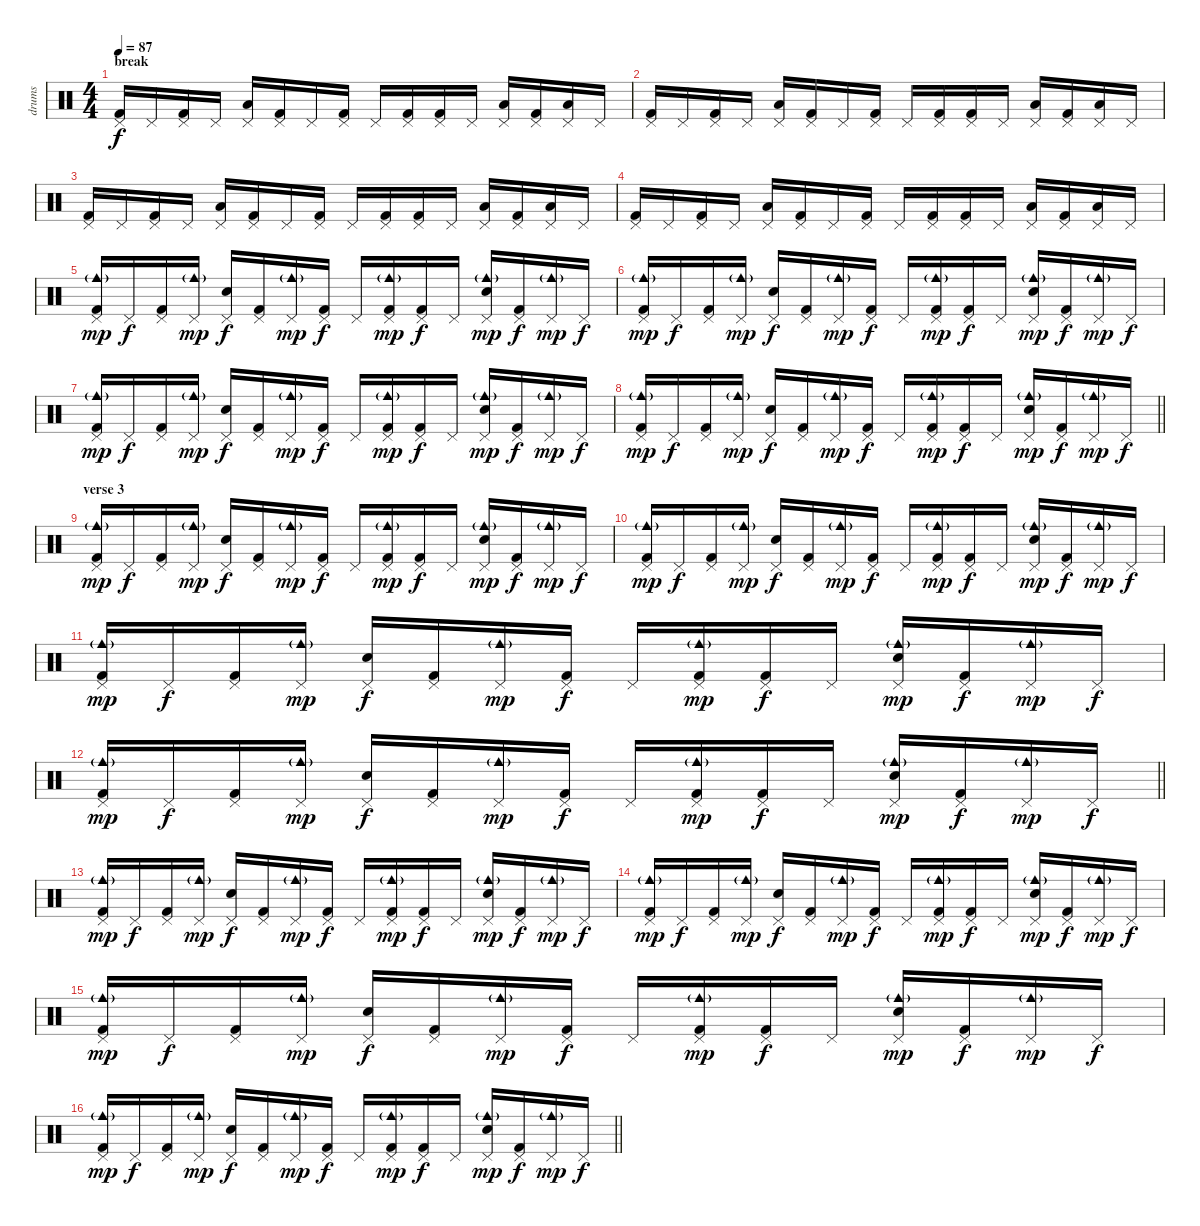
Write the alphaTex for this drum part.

\track ("drums" "drums") {instrument percussion}
\staff {score}
\articulation defaults
\ts (4 4)
\section ("" "break")
\tempo 87
\clef neutral
\ks c
("Kick (hit) 2" "Pedal Hi-Hat (hit)").16{dy f} "Pedal Hi-Hat (hit)".16 ("Kick (hit) 2" "Pedal Hi-Hat (hit)").16 "Pedal Hi-Hat (hit)".16 ("Low Floor Tom (hit)" "Pedal Hi-Hat (hit)").16 ("Kick (hit) 2" "Pedal Hi-Hat (hit)").16 "Pedal Hi-Hat (hit)".16 ("Kick (hit) 2" "Pedal Hi-Hat (hit)").16 "Pedal Hi-Hat (hit)".16 ("Kick (hit) 2" "Pedal Hi-Hat (hit)").16 ("Kick (hit) 2" "Pedal Hi-Hat (hit)").16 "Pedal Hi-Hat (hit)".16 ("Low Floor Tom (hit)" "Pedal Hi-Hat (hit)").16 ("Kick (hit) 2" "Pedal Hi-Hat (hit)").16 ("Low Floor Tom (hit)" "Pedal Hi-Hat (hit)").16 "Pedal Hi-Hat (hit)".16 |
("Kick (hit) 2" "Pedal Hi-Hat (hit)").16 "Pedal Hi-Hat (hit)".16 ("Kick (hit) 2" "Pedal Hi-Hat (hit)").16 "Pedal Hi-Hat (hit)".16 ("Low Floor Tom (hit)" "Pedal Hi-Hat (hit)").16 ("Kick (hit) 2" "Pedal Hi-Hat (hit)").16 "Pedal Hi-Hat (hit)".16 ("Kick (hit) 2" "Pedal Hi-Hat (hit)").16 "Pedal Hi-Hat (hit)".16 ("Kick (hit) 2" "Pedal Hi-Hat (hit)").16 ("Kick (hit) 2" "Pedal Hi-Hat (hit)").16 "Pedal Hi-Hat (hit)".16 ("Low Floor Tom (hit)" "Pedal Hi-Hat (hit)").16 ("Kick (hit) 2" "Pedal Hi-Hat (hit)").16 ("Low Floor Tom (hit)" "Pedal Hi-Hat (hit)").16 "Pedal Hi-Hat (hit)".16 |
("Kick (hit) 2" "Pedal Hi-Hat (hit)").16 "Pedal Hi-Hat (hit)".16 ("Kick (hit) 2" "Pedal Hi-Hat (hit)").16 "Pedal Hi-Hat (hit)".16 ("Low Floor Tom (hit)" "Pedal Hi-Hat (hit)").16 ("Kick (hit) 2" "Pedal Hi-Hat (hit)").16 "Pedal Hi-Hat (hit)".16 ("Kick (hit) 2" "Pedal Hi-Hat (hit)").16 "Pedal Hi-Hat (hit)".16 ("Kick (hit) 2" "Pedal Hi-Hat (hit)").16 ("Kick (hit) 2" "Pedal Hi-Hat (hit)").16 "Pedal Hi-Hat (hit)".16 ("Low Floor Tom (hit)" "Pedal Hi-Hat (hit)").16 ("Kick (hit) 2" "Pedal Hi-Hat (hit)").16 ("Low Floor Tom (hit)" "Pedal Hi-Hat (hit)").16 "Pedal Hi-Hat (hit)".16 |
("Kick (hit) 2" "Pedal Hi-Hat (hit)").16 "Pedal Hi-Hat (hit)".16 ("Kick (hit) 2" "Pedal Hi-Hat (hit)").16 "Pedal Hi-Hat (hit)".16 ("Low Floor Tom (hit)" "Pedal Hi-Hat (hit)").16 ("Kick (hit) 2" "Pedal Hi-Hat (hit)").16 "Pedal Hi-Hat (hit)".16 ("Kick (hit) 2" "Pedal Hi-Hat (hit)").16 "Pedal Hi-Hat (hit)".16 ("Kick (hit) 2" "Pedal Hi-Hat (hit)").16 ("Kick (hit) 2" "Pedal Hi-Hat (hit)").16 "Pedal Hi-Hat (hit)".16 ("Low Floor Tom (hit)" "Pedal Hi-Hat (hit)").16 ("Kick (hit) 2" "Pedal Hi-Hat (hit)").16 ("Low Floor Tom (hit)" "Pedal Hi-Hat (hit)").16 "Pedal Hi-Hat (hit)".16 |
("Kick (hit) 2" "Pedal Hi-Hat (hit)" "Cowbell medium (hit)"{g}).16{dy mp} "Pedal Hi-Hat (hit)".16{dy f} ("Kick (hit) 2" "Pedal Hi-Hat (hit)").16 ("Pedal Hi-Hat (hit)" "Cowbell medium (hit)"{g}).16{dy mp} ("Snare (hit) 2" "Pedal Hi-Hat (hit)").16{dy f} ("Kick (hit) 2" "Pedal Hi-Hat (hit)").16 ("Pedal Hi-Hat (hit)" "Cowbell medium (hit)"{g}).16{dy mp} ("Kick (hit) 2" "Pedal Hi-Hat (hit)").16{dy f} "Pedal Hi-Hat (hit)".16 ("Kick (hit) 2" "Pedal Hi-Hat (hit)" "Cowbell medium (hit)"{g}).16{dy mp} ("Kick (hit) 2" "Pedal Hi-Hat (hit)").16{dy f} "Pedal Hi-Hat (hit)".16 ("Snare (hit) 2" "Pedal Hi-Hat (hit)" "Cowbell medium (hit)"{g}).16{dy mp} ("Kick (hit) 2" "Pedal Hi-Hat (hit)").16{dy f} ("Pedal Hi-Hat (hit)" "Cowbell medium (hit)"{g}).16{dy mp} "Pedal Hi-Hat (hit)".16{dy f} |
("Kick (hit) 2" "Pedal Hi-Hat (hit)" "Cowbell medium (hit)"{g}).16{dy mp} "Pedal Hi-Hat (hit)".16{dy f} ("Kick (hit) 2" "Pedal Hi-Hat (hit)").16 ("Pedal Hi-Hat (hit)" "Cowbell medium (hit)"{g}).16{dy mp} ("Snare (hit) 2" "Pedal Hi-Hat (hit)").16{dy f} ("Kick (hit) 2" "Pedal Hi-Hat (hit)").16 ("Pedal Hi-Hat (hit)" "Cowbell medium (hit)"{g}).16{dy mp} ("Kick (hit) 2" "Pedal Hi-Hat (hit)").16{dy f} "Pedal Hi-Hat (hit)".16 ("Kick (hit) 2" "Pedal Hi-Hat (hit)" "Cowbell medium (hit)"{g}).16{dy mp} ("Kick (hit) 2" "Pedal Hi-Hat (hit)").16{dy f} "Pedal Hi-Hat (hit)".16 ("Snare (hit) 2" "Pedal Hi-Hat (hit)" "Cowbell medium (hit)"{g}).16{dy mp} ("Kick (hit) 2" "Pedal Hi-Hat (hit)").16{dy f} ("Pedal Hi-Hat (hit)" "Cowbell medium (hit)"{g}).16{dy mp} "Pedal Hi-Hat (hit)".16{dy f} |
("Kick (hit) 2" "Pedal Hi-Hat (hit)" "Cowbell medium (hit)"{g}).16{dy mp} "Pedal Hi-Hat (hit)".16{dy f} ("Kick (hit) 2" "Pedal Hi-Hat (hit)").16 ("Pedal Hi-Hat (hit)" "Cowbell medium (hit)"{g}).16{dy mp} ("Snare (hit) 2" "Pedal Hi-Hat (hit)").16{dy f} ("Kick (hit) 2" "Pedal Hi-Hat (hit)").16 ("Pedal Hi-Hat (hit)" "Cowbell medium (hit)"{g}).16{dy mp} ("Kick (hit) 2" "Pedal Hi-Hat (hit)").16{dy f} "Pedal Hi-Hat (hit)".16 ("Kick (hit) 2" "Pedal Hi-Hat (hit)" "Cowbell medium (hit)"{g}).16{dy mp} ("Kick (hit) 2" "Pedal Hi-Hat (hit)").16{dy f} "Pedal Hi-Hat (hit)".16 ("Snare (hit) 2" "Pedal Hi-Hat (hit)" "Cowbell medium (hit)"{g}).16{dy mp} ("Kick (hit) 2" "Pedal Hi-Hat (hit)").16{dy f} ("Pedal Hi-Hat (hit)" "Cowbell medium (hit)"{g}).16{dy mp} "Pedal Hi-Hat (hit)".16{dy f} |
\barLineRight lightlight
("Kick (hit) 2" "Pedal Hi-Hat (hit)" "Cowbell medium (hit)"{g}).16{dy mp} "Pedal Hi-Hat (hit)".16{dy f} ("Kick (hit) 2" "Pedal Hi-Hat (hit)").16 ("Pedal Hi-Hat (hit)" "Cowbell medium (hit)"{g}).16{dy mp} ("Snare (hit) 2" "Pedal Hi-Hat (hit)").16{dy f} ("Kick (hit) 2" "Pedal Hi-Hat (hit)").16 ("Pedal Hi-Hat (hit)" "Cowbell medium (hit)"{g}).16{dy mp} ("Kick (hit) 2" "Pedal Hi-Hat (hit)").16{dy f} "Pedal Hi-Hat (hit)".16 ("Kick (hit) 2" "Pedal Hi-Hat (hit)" "Cowbell medium (hit)"{g}).16{dy mp} ("Kick (hit) 2" "Pedal Hi-Hat (hit)").16{dy f} "Pedal Hi-Hat (hit)".16 ("Snare (hit) 2" "Pedal Hi-Hat (hit)" "Cowbell medium (hit)"{g}).16{dy mp} ("Kick (hit) 2" "Pedal Hi-Hat (hit)").16{dy f} ("Pedal Hi-Hat (hit)" "Cowbell medium (hit)"{g}).16{dy mp} "Pedal Hi-Hat (hit)".16{dy f} |
\section ("" "verse 3")
("Kick (hit) 2" "Pedal Hi-Hat (hit)" "Cowbell medium (hit)"{g}).16{dy mp} "Pedal Hi-Hat (hit)".16{dy f} ("Kick (hit) 2" "Pedal Hi-Hat (hit)").16 ("Pedal Hi-Hat (hit)" "Cowbell medium (hit)"{g}).16{dy mp} ("Snare (hit) 2" "Pedal Hi-Hat (hit)").16{dy f} ("Kick (hit) 2" "Pedal Hi-Hat (hit)").16 ("Pedal Hi-Hat (hit)" "Cowbell medium (hit)"{g}).16{dy mp} ("Kick (hit) 2" "Pedal Hi-Hat (hit)").16{dy f} "Pedal Hi-Hat (hit)".16 ("Kick (hit) 2" "Pedal Hi-Hat (hit)" "Cowbell medium (hit)"{g}).16{dy mp} ("Kick (hit) 2" "Pedal Hi-Hat (hit)").16{dy f} "Pedal Hi-Hat (hit)".16 ("Snare (hit) 2" "Pedal Hi-Hat (hit)" "Cowbell medium (hit)"{g}).16{dy mp} ("Kick (hit) 2" "Pedal Hi-Hat (hit)").16{dy f} ("Pedal Hi-Hat (hit)" "Cowbell medium (hit)"{g}).16{dy mp} "Pedal Hi-Hat (hit)".16{dy f} |
("Kick (hit) 2" "Pedal Hi-Hat (hit)" "Cowbell medium (hit)"{g}).16{dy mp} "Pedal Hi-Hat (hit)".16{dy f} ("Kick (hit) 2" "Pedal Hi-Hat (hit)").16 ("Pedal Hi-Hat (hit)" "Cowbell medium (hit)"{g}).16{dy mp} ("Snare (hit) 2" "Pedal Hi-Hat (hit)").16{dy f} ("Kick (hit) 2" "Pedal Hi-Hat (hit)").16 ("Pedal Hi-Hat (hit)" "Cowbell medium (hit)"{g}).16{dy mp} ("Kick (hit) 2" "Pedal Hi-Hat (hit)").16{dy f} "Pedal Hi-Hat (hit)".16 ("Kick (hit) 2" "Pedal Hi-Hat (hit)" "Cowbell medium (hit)"{g}).16{dy mp} ("Kick (hit) 2" "Pedal Hi-Hat (hit)").16{dy f} "Pedal Hi-Hat (hit)".16 ("Snare (hit) 2" "Pedal Hi-Hat (hit)" "Cowbell medium (hit)"{g}).16{dy mp} ("Kick (hit) 2" "Pedal Hi-Hat (hit)").16{dy f} ("Pedal Hi-Hat (hit)" "Cowbell medium (hit)"{g}).16{dy mp} "Pedal Hi-Hat (hit)".16{dy f} |
("Kick (hit) 2" "Pedal Hi-Hat (hit)" "Cowbell medium (hit)"{g}).16{dy mp} "Pedal Hi-Hat (hit)".16{dy f} ("Kick (hit) 2" "Pedal Hi-Hat (hit)").16 ("Pedal Hi-Hat (hit)" "Cowbell medium (hit)"{g}).16{dy mp} ("Snare (hit) 2" "Pedal Hi-Hat (hit)").16{dy f} ("Kick (hit) 2" "Pedal Hi-Hat (hit)").16 ("Pedal Hi-Hat (hit)" "Cowbell medium (hit)"{g}).16{dy mp} ("Kick (hit) 2" "Pedal Hi-Hat (hit)").16{dy f} "Pedal Hi-Hat (hit)".16 ("Kick (hit) 2" "Pedal Hi-Hat (hit)" "Cowbell medium (hit)"{g}).16{dy mp} ("Kick (hit) 2" "Pedal Hi-Hat (hit)").16{dy f} "Pedal Hi-Hat (hit)".16 ("Snare (hit) 2" "Pedal Hi-Hat (hit)" "Cowbell medium (hit)"{g}).16{dy mp} ("Kick (hit) 2" "Pedal Hi-Hat (hit)").16{dy f} ("Pedal Hi-Hat (hit)" "Cowbell medium (hit)"{g}).16{dy mp} "Pedal Hi-Hat (hit)".16{dy f} |
\barLineRight lightlight
("Kick (hit) 2" "Pedal Hi-Hat (hit)" "Cowbell medium (hit)"{g}).16{dy mp} "Pedal Hi-Hat (hit)".16{dy f} ("Kick (hit) 2" "Pedal Hi-Hat (hit)").16 ("Pedal Hi-Hat (hit)" "Cowbell medium (hit)"{g}).16{dy mp} ("Snare (hit) 2" "Pedal Hi-Hat (hit)").16{dy f} ("Kick (hit) 2" "Pedal Hi-Hat (hit)").16 ("Pedal Hi-Hat (hit)" "Cowbell medium (hit)"{g}).16{dy mp} ("Kick (hit) 2" "Pedal Hi-Hat (hit)").16{dy f} "Pedal Hi-Hat (hit)".16 ("Kick (hit) 2" "Pedal Hi-Hat (hit)" "Cowbell medium (hit)"{g}).16{dy mp} ("Kick (hit) 2" "Pedal Hi-Hat (hit)").16{dy f} "Pedal Hi-Hat (hit)".16 ("Snare (hit) 2" "Pedal Hi-Hat (hit)" "Cowbell medium (hit)"{g}).16{dy mp} ("Kick (hit) 2" "Pedal Hi-Hat (hit)").16{dy f} ("Pedal Hi-Hat (hit)" "Cowbell medium (hit)"{g}).16{dy mp} "Pedal Hi-Hat (hit)".16{dy f} |
("Kick (hit) 2" "Pedal Hi-Hat (hit)" "Cowbell medium (hit)"{g}).16{dy mp} "Pedal Hi-Hat (hit)".16{dy f} ("Kick (hit) 2" "Pedal Hi-Hat (hit)").16 ("Pedal Hi-Hat (hit)" "Cowbell medium (hit)"{g}).16{dy mp} ("Snare (hit) 2" "Pedal Hi-Hat (hit)").16{dy f} ("Kick (hit) 2" "Pedal Hi-Hat (hit)").16 ("Pedal Hi-Hat (hit)" "Cowbell medium (hit)"{g}).16{dy mp} ("Kick (hit) 2" "Pedal Hi-Hat (hit)").16{dy f} "Pedal Hi-Hat (hit)".16 ("Kick (hit) 2" "Pedal Hi-Hat (hit)" "Cowbell medium (hit)"{g}).16{dy mp} ("Kick (hit) 2" "Pedal Hi-Hat (hit)").16{dy f} "Pedal Hi-Hat (hit)".16 ("Snare (hit) 2" "Pedal Hi-Hat (hit)" "Cowbell medium (hit)"{g}).16{dy mp} ("Kick (hit) 2" "Pedal Hi-Hat (hit)").16{dy f} ("Pedal Hi-Hat (hit)" "Cowbell medium (hit)"{g}).16{dy mp} "Pedal Hi-Hat (hit)".16{dy f} |
("Kick (hit) 2" "Pedal Hi-Hat (hit)" "Cowbell medium (hit)"{g}).16{dy mp} "Pedal Hi-Hat (hit)".16{dy f} ("Kick (hit) 2" "Pedal Hi-Hat (hit)").16 ("Pedal Hi-Hat (hit)" "Cowbell medium (hit)"{g}).16{dy mp} ("Snare (hit) 2" "Pedal Hi-Hat (hit)").16{dy f} ("Kick (hit) 2" "Pedal Hi-Hat (hit)").16 ("Pedal Hi-Hat (hit)" "Cowbell medium (hit)"{g}).16{dy mp} ("Kick (hit) 2" "Pedal Hi-Hat (hit)").16{dy f} "Pedal Hi-Hat (hit)".16 ("Kick (hit) 2" "Pedal Hi-Hat (hit)" "Cowbell medium (hit)"{g}).16{dy mp} ("Kick (hit) 2" "Pedal Hi-Hat (hit)").16{dy f} "Pedal Hi-Hat (hit)".16 ("Snare (hit) 2" "Pedal Hi-Hat (hit)" "Cowbell medium (hit)"{g}).16{dy mp} ("Kick (hit) 2" "Pedal Hi-Hat (hit)").16{dy f} ("Pedal Hi-Hat (hit)" "Cowbell medium (hit)"{g}).16{dy mp} "Pedal Hi-Hat (hit)".16{dy f} |
("Kick (hit) 2" "Pedal Hi-Hat (hit)" "Cowbell medium (hit)"{g}).16{dy mp} "Pedal Hi-Hat (hit)".16{dy f} ("Kick (hit) 2" "Pedal Hi-Hat (hit)").16 ("Pedal Hi-Hat (hit)" "Cowbell medium (hit)"{g}).16{dy mp} ("Snare (hit) 2" "Pedal Hi-Hat (hit)").16{dy f} ("Kick (hit) 2" "Pedal Hi-Hat (hit)").16 ("Pedal Hi-Hat (hit)" "Cowbell medium (hit)"{g}).16{dy mp} ("Kick (hit) 2" "Pedal Hi-Hat (hit)").16{dy f} "Pedal Hi-Hat (hit)".16 ("Kick (hit) 2" "Pedal Hi-Hat (hit)" "Cowbell medium (hit)"{g}).16{dy mp} ("Kick (hit) 2" "Pedal Hi-Hat (hit)").16{dy f} "Pedal Hi-Hat (hit)".16 ("Snare (hit) 2" "Pedal Hi-Hat (hit)" "Cowbell medium (hit)"{g}).16{dy mp} ("Kick (hit) 2" "Pedal Hi-Hat (hit)").16{dy f} ("Pedal Hi-Hat (hit)" "Cowbell medium (hit)"{g}).16{dy mp} "Pedal Hi-Hat (hit)".16{dy f} |
\barLineRight lightlight
("Kick (hit) 2" "Pedal Hi-Hat (hit)" "Cowbell medium (hit)"{g}).16{dy mp} "Pedal Hi-Hat (hit)".16{dy f} ("Kick (hit) 2" "Pedal Hi-Hat (hit)").16 ("Pedal Hi-Hat (hit)" "Cowbell medium (hit)"{g}).16{dy mp} ("Snare (hit) 2" "Pedal Hi-Hat (hit)").16{dy f} ("Kick (hit) 2" "Pedal Hi-Hat (hit)").16 ("Pedal Hi-Hat (hit)" "Cowbell medium (hit)"{g}).16{dy mp} ("Kick (hit) 2" "Pedal Hi-Hat (hit)").16{dy f} "Pedal Hi-Hat (hit)".16 ("Kick (hit) 2" "Pedal Hi-Hat (hit)" "Cowbell medium (hit)"{g}).16{dy mp} ("Kick (hit) 2" "Pedal Hi-Hat (hit)").16{dy f} "Pedal Hi-Hat (hit)".16 ("Snare (hit) 2" "Pedal Hi-Hat (hit)" "Cowbell medium (hit)"{g}).16{dy mp} ("Kick (hit) 2" "Pedal Hi-Hat (hit)").16{dy f} ("Pedal Hi-Hat (hit)" "Cowbell medium (hit)"{g}).16{dy mp} "Pedal Hi-Hat (hit)".16{dy f}
